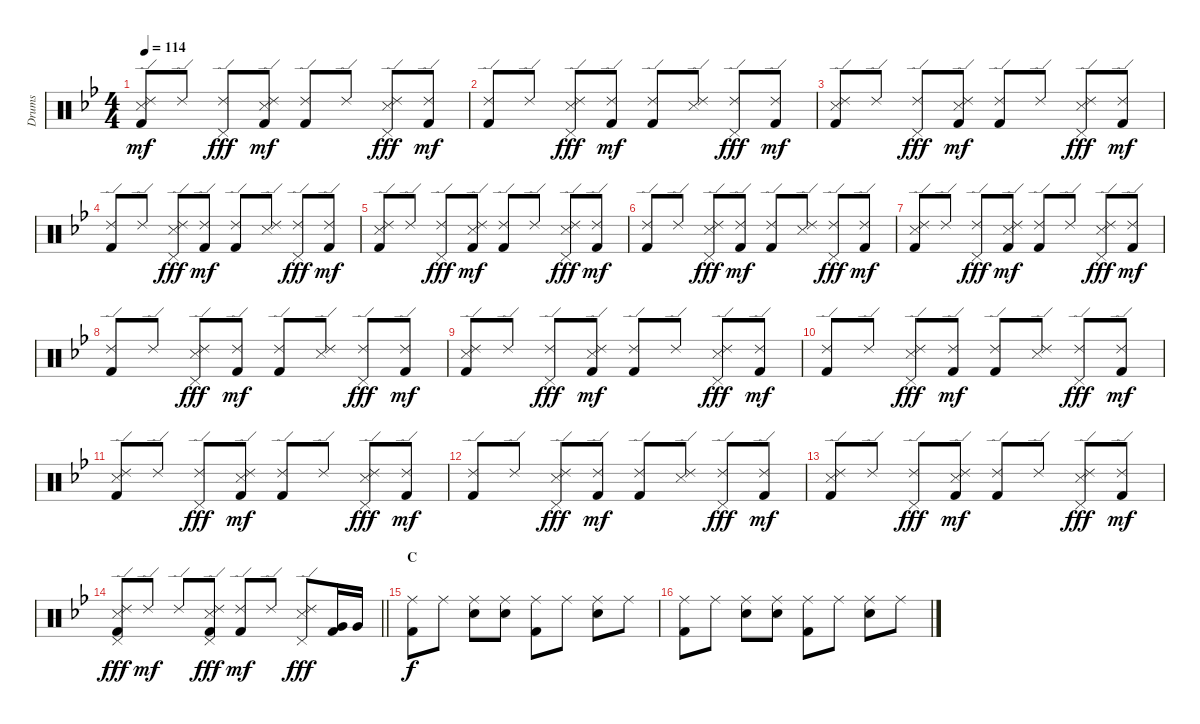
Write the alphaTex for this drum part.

\track ("Drums" "Drums") {instrument percussion}
\staff {score}
\articulation defaults
\ts (4 4)
\tempo 114
\clef neutral
\ks gminor
("Ride (edge) 2" "Snare (side stick) 3" "Kick (hit) 2").8{dy mf} "Ride (edge) 2".8 ("Ride (edge) 2" "Pedal Hi-Hat (hit)").8{dy fff} ("Ride (edge) 2" "Snare (side stick) 3" "Kick (hit) 2").8{dy mf} ("Ride (edge) 2" "Kick (hit) 2").8 "Ride (edge) 2".8 ("Ride (edge) 2" "Pedal Hi-Hat (hit)" "Snare (side stick) 3").8{dy fff} ("Ride (edge) 2" "Kick (hit) 2").8{dy mf} |
("Ride (edge) 2" "Kick (hit) 2").8 "Ride (edge) 2".8 ("Ride (edge) 2" "Pedal Hi-Hat (hit)" "Snare (side stick) 3").8{dy fff} ("Ride (edge) 2" "Kick (hit) 2").8{dy mf} ("Ride (edge) 2" "Kick (hit) 2").8 ("Ride (edge) 2" "Snare (side stick) 3").8 ("Ride (edge) 2" "Pedal Hi-Hat (hit)").8{dy fff} ("Ride (edge) 2" "Kick (hit) 2").8{dy mf} |
("Ride (edge) 2" "Snare (side stick) 3" "Kick (hit) 2").8 "Ride (edge) 2".8 ("Ride (edge) 2" "Pedal Hi-Hat (hit)").8{dy fff} ("Ride (edge) 2" "Snare (side stick) 3" "Kick (hit) 2").8{dy mf} ("Ride (edge) 2" "Kick (hit) 2").8 "Ride (edge) 2".8 ("Ride (edge) 2" "Pedal Hi-Hat (hit)" "Snare (side stick) 3").8{dy fff} ("Ride (edge) 2" "Kick (hit) 2").8{dy mf} |
("Ride (edge) 2" "Kick (hit) 2").8 "Ride (edge) 2".8 ("Ride (edge) 2" "Pedal Hi-Hat (hit)" "Snare (side stick) 3").8{dy fff} ("Ride (edge) 2" "Kick (hit) 2").8{dy mf} ("Ride (edge) 2" "Kick (hit) 2").8 ("Ride (edge) 2" "Snare (side stick) 3").8 ("Ride (edge) 2" "Pedal Hi-Hat (hit)").8{dy fff} ("Ride (edge) 2" "Kick (hit) 2").8{dy mf} |
("Ride (edge) 2" "Snare (side stick) 3" "Kick (hit) 2").8 "Ride (edge) 2".8 ("Ride (edge) 2" "Pedal Hi-Hat (hit)").8{dy fff} ("Ride (edge) 2" "Snare (side stick) 3" "Kick (hit) 2").8{dy mf} ("Ride (edge) 2" "Kick (hit) 2").8 "Ride (edge) 2".8 ("Ride (edge) 2" "Pedal Hi-Hat (hit)" "Snare (side stick) 3").8{dy fff} ("Ride (edge) 2" "Kick (hit) 2").8{dy mf} |
("Ride (edge) 2" "Kick (hit) 2").8 "Ride (edge) 2".8 ("Ride (edge) 2" "Pedal Hi-Hat (hit)" "Snare (side stick) 3").8{dy fff} ("Ride (edge) 2" "Kick (hit) 2").8{dy mf} ("Ride (edge) 2" "Kick (hit) 2").8 ("Ride (edge) 2" "Snare (side stick) 3").8 ("Ride (edge) 2" "Pedal Hi-Hat (hit)").8{dy fff} ("Ride (edge) 2" "Kick (hit) 2").8{dy mf} |
("Ride (edge) 2" "Snare (side stick) 3" "Kick (hit) 2").8 "Ride (edge) 2".8 ("Ride (edge) 2" "Pedal Hi-Hat (hit)").8{dy fff} ("Ride (edge) 2" "Snare (side stick) 3" "Kick (hit) 2").8{dy mf} ("Ride (edge) 2" "Kick (hit) 2").8 "Ride (edge) 2".8 ("Ride (edge) 2" "Pedal Hi-Hat (hit)" "Snare (side stick) 3").8{dy fff} ("Ride (edge) 2" "Kick (hit) 2").8{dy mf} |
("Ride (edge) 2" "Kick (hit) 2").8 "Ride (edge) 2".8 ("Ride (edge) 2" "Pedal Hi-Hat (hit)" "Snare (side stick) 3").8{dy fff} ("Ride (edge) 2" "Kick (hit) 2").8{dy mf} ("Ride (edge) 2" "Kick (hit) 2").8 ("Ride (edge) 2" "Snare (side stick) 3").8 ("Ride (edge) 2" "Pedal Hi-Hat (hit)").8{dy fff} ("Ride (edge) 2" "Kick (hit) 2").8{dy mf} |
("Ride (edge) 2" "Snare (side stick) 3" "Kick (hit) 2").8 "Ride (edge) 2".8 ("Ride (edge) 2" "Pedal Hi-Hat (hit)").8{dy fff} ("Ride (edge) 2" "Snare (side stick) 3" "Kick (hit) 2").8{dy mf} ("Ride (edge) 2" "Kick (hit) 2").8 "Ride (edge) 2".8 ("Ride (edge) 2" "Pedal Hi-Hat (hit)" "Snare (side stick) 3").8{dy fff} ("Ride (edge) 2" "Kick (hit) 2").8{dy mf} |
("Ride (edge) 2" "Kick (hit) 2").8 "Ride (edge) 2".8 ("Ride (edge) 2" "Pedal Hi-Hat (hit)" "Snare (side stick) 3").8{dy fff} ("Ride (edge) 2" "Kick (hit) 2").8{dy mf} ("Ride (edge) 2" "Kick (hit) 2").8 ("Ride (edge) 2" "Snare (side stick) 3").8 ("Ride (edge) 2" "Pedal Hi-Hat (hit)").8{dy fff} ("Ride (edge) 2" "Kick (hit) 2").8{dy mf} |
("Ride (edge) 2" "Snare (side stick) 3" "Kick (hit) 2").8 "Ride (edge) 2".8 ("Ride (edge) 2" "Pedal Hi-Hat (hit)").8{dy fff} ("Ride (edge) 2" "Snare (side stick) 3" "Kick (hit) 2").8{dy mf} ("Ride (edge) 2" "Kick (hit) 2").8 "Ride (edge) 2".8 ("Ride (edge) 2" "Pedal Hi-Hat (hit)" "Snare (side stick) 3").8{dy fff} ("Ride (edge) 2" "Kick (hit) 2").8{dy mf} |
("Ride (edge) 2" "Kick (hit) 2").8 "Ride (edge) 2".8 ("Ride (edge) 2" "Pedal Hi-Hat (hit)" "Snare (side stick) 3").8{dy fff} ("Ride (edge) 2" "Kick (hit) 2").8{dy mf} ("Ride (edge) 2" "Kick (hit) 2").8 ("Ride (edge) 2" "Snare (side stick) 3").8 ("Ride (edge) 2" "Pedal Hi-Hat (hit)").8{dy fff} ("Ride (edge) 2" "Kick (hit) 2").8{dy mf} |
("Ride (edge) 2" "Snare (side stick) 3" "Kick (hit) 2").8 "Ride (edge) 2".8 ("Ride (edge) 2" "Pedal Hi-Hat (hit)").8{dy fff} ("Ride (edge) 2" "Snare (side stick) 3" "Kick (hit) 2").8{dy mf} ("Ride (edge) 2" "Kick (hit) 2").8 "Ride (edge) 2".8 ("Ride (edge) 2" "Pedal Hi-Hat (hit)" "Snare (side stick) 3").8{dy fff} ("Ride (edge) 2" "Kick (hit) 2").8{dy mf} |
\barLineRight lightlight
("Ride (edge) 2" "Pedal Hi-Hat (hit)" "Snare (side stick) 3" "Kick (hit) 2").8{dy fff} "Ride (edge) 2".8{dy mf} "Ride (edge) 2".8 ("Ride (edge) 2" "Pedal Hi-Hat (hit)" "Snare (side stick) 3" "Kick (hit) 2").8{dy fff} ("Ride (edge) 2" "Kick (hit) 2").8{dy mf} "Ride (edge) 2".8 ("Ride (edge) 2" "Pedal Hi-Hat (hit)" "Snare (side stick) 3").8{dy fff} ("Very Low Tom (hit)" "Kick (hit) 2").16 "Very Low Tom (hit)".16 |
\section ("" "C")
("Ride (middle)" "Kick (hit) 2").8{dy f volume 12} "Ride (middle)".8 ("Ride (middle)" "Electric Snare (hit)").8 ("Ride (middle)" "Electric Snare (hit)").8 ("Ride (middle)" "Kick (hit) 2").8 "Ride (middle)".8 ("Ride (middle)" "Electric Snare (hit)").8 "Ride (middle)".8 |
("Ride (middle)" "Kick (hit) 2").8 "Ride (middle)".8 ("Ride (middle)" "Electric Snare (hit)").8 ("Ride (middle)" "Electric Snare (hit)").8 ("Ride (middle)" "Kick (hit) 2").8 "Ride (middle)".8 ("Ride (middle)" "Electric Snare (hit)").8 "Ride (middle)".8
